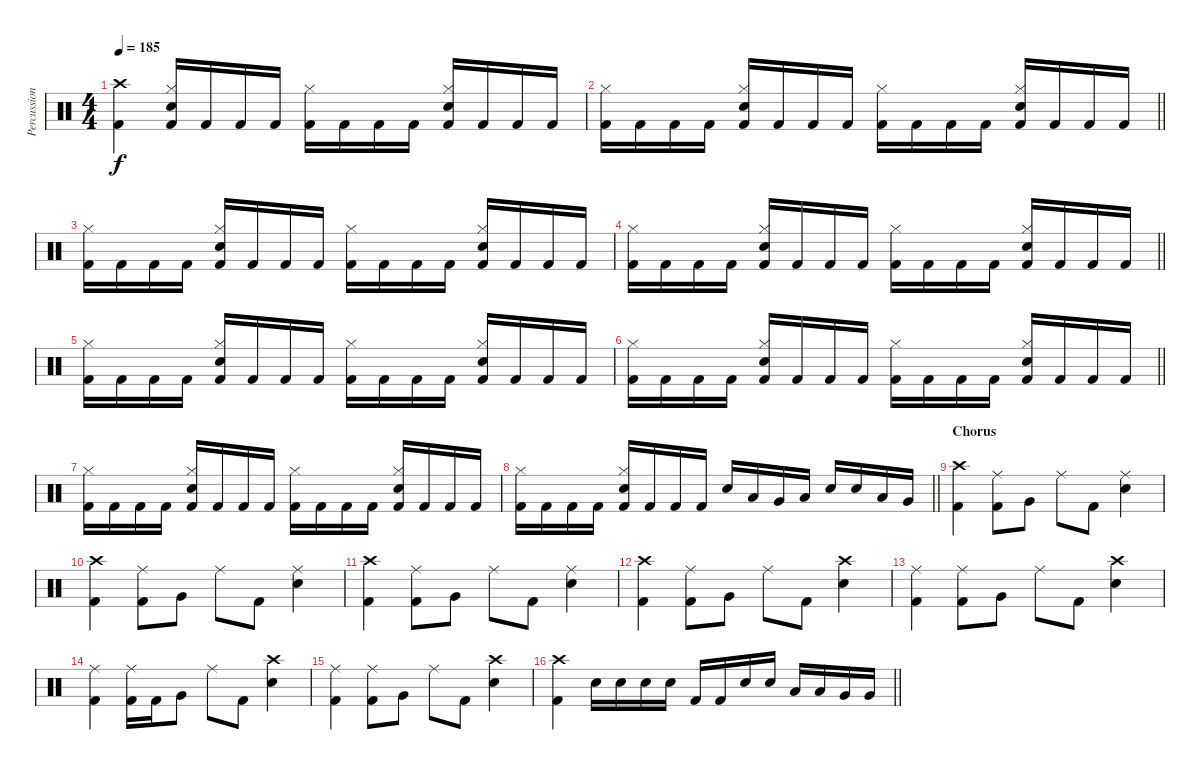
\track ("Percussion" "Percussion") {instrument percussion}
\staff {score}
\articulation defaults
\ts (4 4)
\tempo 185
\clef neutral
\ks c
("Crash high (hit)" "Kick (hit) 2").4{dy f} ("Hi-Hat (closed)" "Snare (hit) 2" "Kick (hit) 2").16 "Kick (hit) 2".16 "Kick (hit) 2".16 "Kick (hit) 2".16 ("Hi-Hat (closed)" "Kick (hit) 2").16 "Kick (hit) 2".16 "Kick (hit) 2".16 "Kick (hit) 2".16 ("Hi-Hat (closed)" "Snare (hit) 2" "Kick (hit) 2").16 "Kick (hit) 2".16 "Kick (hit) 2".16 "Kick (hit) 2".16 |
\barLineRight lightlight
("Hi-Hat (closed)" "Kick (hit) 2").16 "Kick (hit) 2".16 "Kick (hit) 2".16 "Kick (hit) 2".16 ("Hi-Hat (closed)" "Snare (hit) 2" "Kick (hit) 2").16 "Kick (hit) 2".16 "Kick (hit) 2".16 "Kick (hit) 2".16 ("Hi-Hat (closed)" "Kick (hit) 2").16 "Kick (hit) 2".16 "Kick (hit) 2".16 "Kick (hit) 2".16 ("Hi-Hat (closed)" "Snare (hit) 2" "Kick (hit) 2").16 "Kick (hit) 2".16 "Kick (hit) 2".16 "Kick (hit) 2".16 |
("Hi-Hat (closed)" "Kick (hit) 2").16 "Kick (hit) 2".16 "Kick (hit) 2".16 "Kick (hit) 2".16 ("Hi-Hat (closed)" "Snare (hit) 2" "Kick (hit) 2").16 "Kick (hit) 2".16 "Kick (hit) 2".16 "Kick (hit) 2".16 ("Hi-Hat (closed)" "Kick (hit) 2").16 "Kick (hit) 2".16 "Kick (hit) 2".16 "Kick (hit) 2".16 ("Hi-Hat (closed)" "Snare (hit) 2" "Kick (hit) 2").16 "Kick (hit) 2".16 "Kick (hit) 2".16 "Kick (hit) 2".16 |
\barLineRight lightlight
("Hi-Hat (closed)" "Kick (hit) 2").16 "Kick (hit) 2".16 "Kick (hit) 2".16 "Kick (hit) 2".16 ("Hi-Hat (closed)" "Snare (hit) 2" "Kick (hit) 2").16 "Kick (hit) 2".16 "Kick (hit) 2".16 "Kick (hit) 2".16 ("Hi-Hat (closed)" "Kick (hit) 2").16 "Kick (hit) 2".16 "Kick (hit) 2".16 "Kick (hit) 2".16 ("Hi-Hat (closed)" "Snare (hit) 2" "Kick (hit) 2").16 "Kick (hit) 2".16 "Kick (hit) 2".16 "Kick (hit) 2".16 |
("Hi-Hat (closed)" "Kick (hit) 2").16 "Kick (hit) 2".16 "Kick (hit) 2".16 "Kick (hit) 2".16 ("Hi-Hat (closed)" "Snare (hit) 2" "Kick (hit) 2").16 "Kick (hit) 2".16 "Kick (hit) 2".16 "Kick (hit) 2".16 ("Hi-Hat (closed)" "Kick (hit) 2").16 "Kick (hit) 2".16 "Kick (hit) 2".16 "Kick (hit) 2".16 ("Hi-Hat (closed)" "Snare (hit) 2" "Kick (hit) 2").16 "Kick (hit) 2".16 "Kick (hit) 2".16 "Kick (hit) 2".16 |
\barLineRight lightlight
("Hi-Hat (closed)" "Kick (hit) 2").16 "Kick (hit) 2".16 "Kick (hit) 2".16 "Kick (hit) 2".16 ("Hi-Hat (closed)" "Snare (hit) 2" "Kick (hit) 2").16 "Kick (hit) 2".16 "Kick (hit) 2".16 "Kick (hit) 2".16 ("Hi-Hat (closed)" "Kick (hit) 2").16 "Kick (hit) 2".16 "Kick (hit) 2".16 "Kick (hit) 2".16 ("Hi-Hat (closed)" "Snare (hit) 2" "Kick (hit) 2").16 "Kick (hit) 2".16 "Kick (hit) 2".16 "Kick (hit) 2".16 |
("Hi-Hat (closed)" "Kick (hit) 2").16 "Kick (hit) 2".16 "Kick (hit) 2".16 "Kick (hit) 2".16 ("Hi-Hat (closed)" "Snare (hit) 2" "Kick (hit) 2").16 "Kick (hit) 2".16 "Kick (hit) 2".16 "Kick (hit) 2".16 ("Hi-Hat (closed)" "Kick (hit) 2").16 "Kick (hit) 2".16 "Kick (hit) 2".16 "Kick (hit) 2".16 ("Hi-Hat (closed)" "Snare (hit) 2" "Kick (hit) 2").16 "Kick (hit) 2".16 "Kick (hit) 2".16 "Kick (hit) 2".16 |
\barLineRight lightlight
("Hi-Hat (closed)" "Kick (hit) 2").16 "Kick (hit) 2".16 "Kick (hit) 2".16 "Kick (hit) 2".16 ("Hi-Hat (closed)" "Snare (hit) 2" "Kick (hit) 2").16 "Kick (hit) 2".16 "Kick (hit) 2".16 "Kick (hit) 2".16 "Snare (hit) 2".16 "Low Tom (hit)".16 "Very Low Tom (hit)".16 "Low Floor Tom (hit)".16 "Snare (hit) 2".16 "Snare (hit) 2".16 "Low Tom (hit)".16 "Very Low Tom (hit)".16 |
\section ("" "Chorus")
("Crash high (hit)" "Kick (hit) 2").4 ("Ride (middle)" "Kick (hit) 2").8 "Very Low Tom (hit)".8 "Ride (middle)".8 "Kick (hit) 2".8 ("Ride (middle)" "Snare (hit) 2").4 |
("Crash high (hit)" "Kick (hit) 2").4 ("Ride (middle)" "Kick (hit) 2").8 "Very Low Tom (hit)".8 "Ride (middle)".8 "Kick (hit) 2".8 ("Ride (middle)" "Snare (hit) 2").4 |
("Crash high (hit)" "Kick (hit) 2").4 ("Ride (middle)" "Kick (hit) 2").8 "Very Low Tom (hit)".8 "Ride (middle)".8 "Kick (hit) 2".8 ("Ride (middle)" "Snare (hit) 2").4 |
("Crash high (hit)" "Kick (hit) 2").4 ("Ride (middle)" "Kick (hit) 2").8 "Very Low Tom (hit)".8 "Ride (middle)".8 "Kick (hit) 2".8 ("Crash high (hit)" "Snare (hit) 2").4 |
("Ride (middle)" "Kick (hit) 2").4 ("Ride (middle)" "Kick (hit) 2").8 "Very Low Tom (hit)".8 "Ride (middle)".8 "Kick (hit) 2".8 ("Crash high (hit)" "Snare (hit) 2").4 |
("Ride (middle)" "Kick (hit) 2").4 ("Ride (middle)" "Kick (hit) 2").16 "Kick (hit) 2".16 "Very Low Tom (hit)".8 "Ride (middle)".8 "Kick (hit) 2".8 ("Crash high (hit)" "Snare (hit) 2").4 |
("Ride (middle)" "Kick (hit) 2").4 ("Ride (middle)" "Kick (hit) 2").8 "Very Low Tom (hit)".8 "Ride (middle)".8 "Kick (hit) 2".8 ("Crash high (hit)" "Snare (hit) 2").4 |
\barLineRight lightlight
("Crash high (hit)" "Kick (hit) 2").4 "Snare (hit) 2".16 "Snare (hit) 2".16 "Snare (hit) 2".16 "Snare (hit) 2".16 "Kick (hit) 2".16 "Kick (hit) 2".16 "Snare (hit) 2".16 "Snare (hit) 2".16 "Low Tom (hit)".16 "Low Tom (hit)".16 "Very Low Tom (hit)".16 "Very Low Tom (hit)".16
